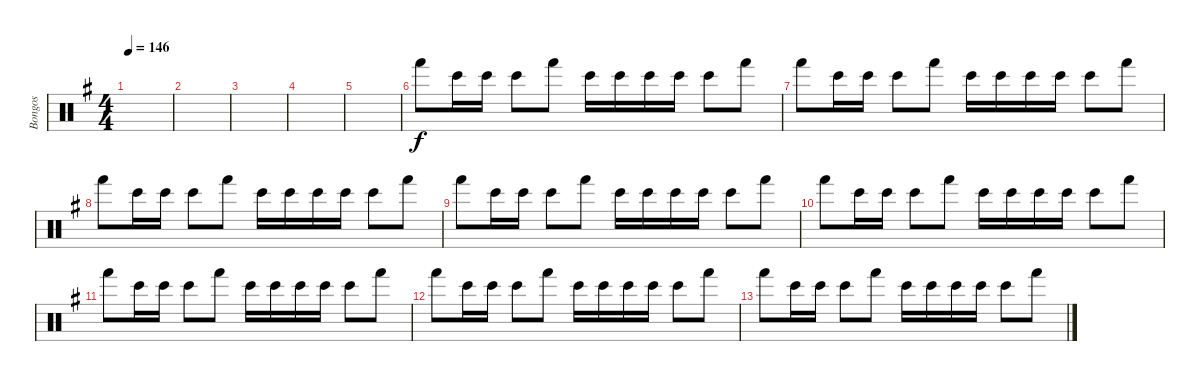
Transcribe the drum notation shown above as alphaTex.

\track ("Bongos" "Bongos") {instrument percussion}
\staff {score}
\articulation defaults
\ts (4 4)
\tempo 146
\clef neutral
\ks g
|
|
|
|
|
"Hand (hit)".8 "Bongo High (hit)".16 "Bongo High (hit)".16 "Bongo High (hit)".8 "Hand (hit)".8 "Bongo High (hit)".16 "Bongo High (hit)".16 "Bongo High (hit)".16 "Bongo High (hit)".16 "Bongo High (hit)".8 "Hand (hit)".8 |
"Hand (hit)".8 "Bongo High (hit)".16 "Bongo High (hit)".16 "Bongo High (hit)".8 "Hand (hit)".8 "Bongo High (hit)".16 "Bongo High (hit)".16 "Bongo High (hit)".16 "Bongo High (hit)".16 "Bongo High (hit)".8 "Hand (hit)".8 |
"Hand (hit)".8 "Bongo High (hit)".16 "Bongo High (hit)".16 "Bongo High (hit)".8 "Hand (hit)".8 "Bongo High (hit)".16 "Bongo High (hit)".16 "Bongo High (hit)".16 "Bongo High (hit)".16 "Bongo High (hit)".8 "Hand (hit)".8 |
"Hand (hit)".8 "Bongo High (hit)".16 "Bongo High (hit)".16 "Bongo High (hit)".8 "Hand (hit)".8 "Bongo High (hit)".16 "Bongo High (hit)".16 "Bongo High (hit)".16 "Bongo High (hit)".16 "Bongo High (hit)".8 "Hand (hit)".8 |
"Hand (hit)".8 "Bongo High (hit)".16 "Bongo High (hit)".16 "Bongo High (hit)".8 "Hand (hit)".8 "Bongo High (hit)".16 "Bongo High (hit)".16 "Bongo High (hit)".16 "Bongo High (hit)".16 "Bongo High (hit)".8 "Hand (hit)".8 |
"Hand (hit)".8 "Bongo High (hit)".16 "Bongo High (hit)".16 "Bongo High (hit)".8 "Hand (hit)".8 "Bongo High (hit)".16 "Bongo High (hit)".16 "Bongo High (hit)".16 "Bongo High (hit)".16 "Bongo High (hit)".8 "Hand (hit)".8 |
"Hand (hit)".8 "Bongo High (hit)".16 "Bongo High (hit)".16 "Bongo High (hit)".8 "Hand (hit)".8 "Bongo High (hit)".16 "Bongo High (hit)".16 "Bongo High (hit)".16 "Bongo High (hit)".16 "Bongo High (hit)".8 "Hand (hit)".8 |
"Hand (hit)".8 "Bongo High (hit)".16 "Bongo High (hit)".16 "Bongo High (hit)".8 "Hand (hit)".8 "Bongo High (hit)".16 "Bongo High (hit)".16 "Bongo High (hit)".16 "Bongo High (hit)".16 "Bongo High (hit)".8 "Hand (hit)".8
